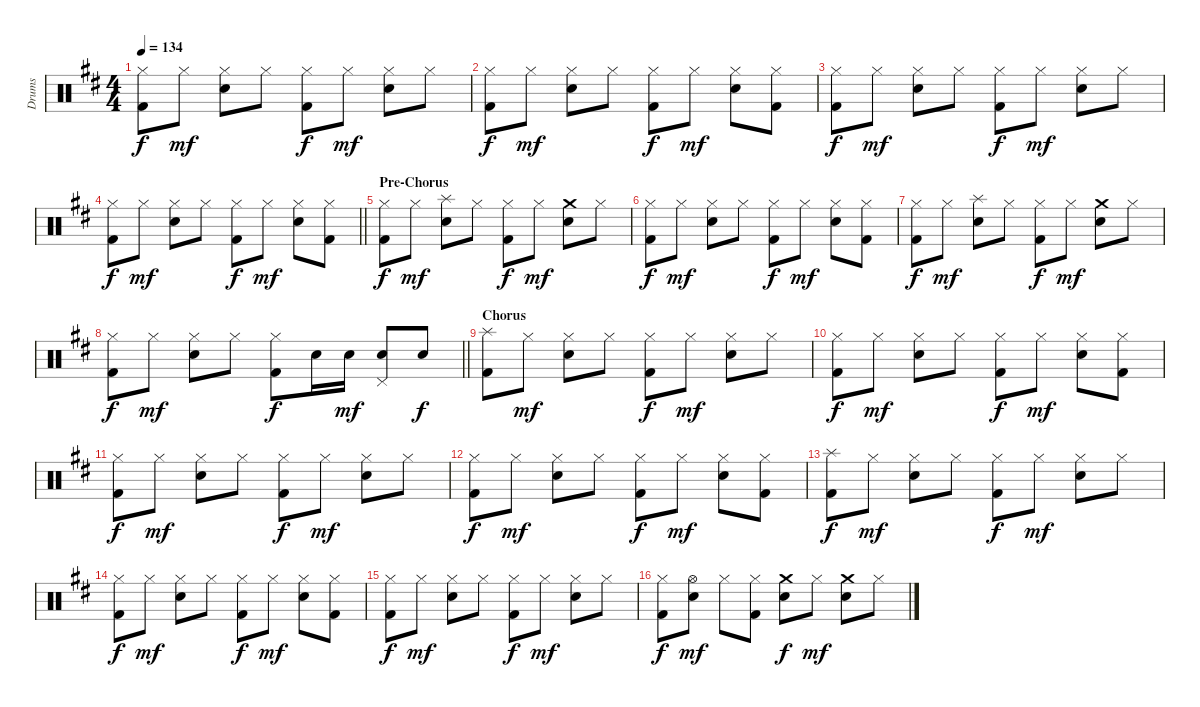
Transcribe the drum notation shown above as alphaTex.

\track ("Drums" "Drums") {instrument percussion}
\staff {score}
\articulation defaults
\ts (4 4)
\tempo 134
\clef neutral
\ks d
("Hi-Hat (closed)" "Kick (hit) 2").8{dy f} "Hi-Hat (closed)".8{dy mf} ("Hi-Hat (closed)" "Snare (hit) 2").8 "Hi-Hat (closed)".8 ("Hi-Hat (closed)" "Kick (hit) 2").8{dy f} "Hi-Hat (closed)".8{dy mf} ("Hi-Hat (closed)" "Snare (hit) 2").8 "Hi-Hat (closed)".8 |
("Hi-Hat (closed)" "Kick (hit) 2").8{dy f} "Hi-Hat (closed)".8{dy mf} ("Hi-Hat (closed)" "Snare (hit) 2").8 "Hi-Hat (closed)".8 ("Hi-Hat (closed)" "Kick (hit) 2").8{dy f} "Hi-Hat (closed)".8{dy mf} ("Hi-Hat (closed)" "Snare (hit) 2").8 ("Hi-Hat (closed)" "Kick (hit) 2").8 |
("Hi-Hat (closed)" "Kick (hit) 2").8{dy f} "Hi-Hat (closed)".8{dy mf} ("Hi-Hat (closed)" "Snare (hit) 2").8 "Hi-Hat (closed)".8 ("Hi-Hat (closed)" "Kick (hit) 2").8{dy f} "Hi-Hat (closed)".8{dy mf} ("Hi-Hat (closed)" "Snare (hit) 2").8 "Hi-Hat (closed)".8 |
\barLineRight lightlight
("Hi-Hat (closed)" "Kick (hit) 2").8{dy f} "Hi-Hat (closed)".8{dy mf} ("Hi-Hat (closed)" "Snare (hit) 2").8 "Hi-Hat (closed)".8 ("Hi-Hat (closed)" "Kick (hit) 2").8{dy f} "Hi-Hat (closed)".8{dy mf} ("Hi-Hat (closed)" "Snare (hit) 2").8 ("Hi-Hat (closed)" "Kick (hit) 2").8 |
\section ("" "Pre-Chorus")
("Hi-Hat (closed)" "Kick (hit) 2").8{dy f} "Hi-Hat (closed)".8{dy mf} ("Splash (hit)" "Snare (hit) 2").8 "Hi-Hat (closed)".8 ("Hi-Hat (closed)" "Kick (hit) 2").8{dy f} "Hi-Hat (closed)".8{dy mf} ("Crash medium (hit)" "Snare (hit) 2").8 "Hi-Hat (closed)".8 |
("Hi-Hat (closed)" "Kick (hit) 2").8{dy f} "Hi-Hat (closed)".8{dy mf} ("Hi-Hat (closed)" "Snare (hit) 2").8 "Hi-Hat (closed)".8 ("Hi-Hat (closed)" "Kick (hit) 2").8{dy f} "Hi-Hat (closed)".8{dy mf} ("Hi-Hat (closed)" "Snare (hit) 2").8 ("Hi-Hat (closed)" "Kick (hit) 2").8 |
("Hi-Hat (closed)" "Kick (hit) 2").8{dy f} "Hi-Hat (closed)".8{dy mf} ("Splash (hit)" "Snare (hit) 2").8 "Hi-Hat (closed)".8 ("Hi-Hat (closed)" "Kick (hit) 2").8{dy f} "Hi-Hat (closed)".8{dy mf} ("Crash medium (hit)" "Snare (hit) 2").8 "Hi-Hat (closed)".8 |
\barLineRight lightlight
("Hi-Hat (closed)" "Kick (hit) 2").8{dy f} "Hi-Hat (closed)".8{dy mf} ("Hi-Hat (closed)" "Snare (hit) 2").8 "Hi-Hat (closed)".8 ("Hi-Hat (closed)" "Kick (hit) 2").8{dy f} "Snare (hit) 2".16 "Snare (hit) 2".16{dy mf} ("Pedal Hi-Hat (hit)" "Snare (hit) 2").8 "Snare (hit) 2".8{dy f} |
\section ("" "Chorus")
("Splash (hit)" "Kick (hit) 2").8 "Hi-Hat (closed)".8{dy mf} ("Hi-Hat (closed)" "Snare (hit) 2").8 "Hi-Hat (closed)".8 ("Hi-Hat (closed)" "Kick (hit) 2").8{dy f} "Hi-Hat (closed)".8{dy mf} ("Hi-Hat (closed)" "Snare (hit) 2").8 "Hi-Hat (closed)".8 |
("Hi-Hat (closed)" "Kick (hit) 2").8{dy f} "Hi-Hat (closed)".8{dy mf} ("Hi-Hat (closed)" "Snare (hit) 2").8 "Hi-Hat (closed)".8 ("Hi-Hat (closed)" "Kick (hit) 2").8{dy f} "Hi-Hat (closed)".8{dy mf} ("Hi-Hat (closed)" "Snare (hit) 2").8 ("Hi-Hat (closed)" "Kick (hit) 2").8 |
("Hi-Hat (closed)" "Kick (hit) 2").8{dy f} "Hi-Hat (closed)".8{dy mf} ("Hi-Hat (closed)" "Snare (hit) 2").8 "Hi-Hat (closed)".8 ("Hi-Hat (closed)" "Kick (hit) 2").8{dy f} "Hi-Hat (closed)".8{dy mf} ("Hi-Hat (closed)" "Snare (hit) 2").8 "Hi-Hat (closed)".8 |
("Hi-Hat (closed)" "Kick (hit) 2").8{dy f} "Hi-Hat (closed)".8{dy mf} ("Hi-Hat (closed)" "Snare (hit) 2").8 "Hi-Hat (closed)".8 ("Hi-Hat (closed)" "Kick (hit) 2").8{dy f} "Hi-Hat (closed)".8{dy mf} ("Hi-Hat (closed)" "Snare (hit) 2").8 ("Hi-Hat (closed)" "Kick (hit) 2").8 |
("Splash (hit)" "Kick (hit) 2").8{dy f} "Hi-Hat (closed)".8{dy mf} ("Hi-Hat (closed)" "Snare (hit) 2").8 "Hi-Hat (closed)".8 ("Hi-Hat (closed)" "Kick (hit) 2").8{dy f} "Hi-Hat (closed)".8{dy mf} ("Hi-Hat (closed)" "Snare (hit) 2").8 "Hi-Hat (closed)".8 |
("Hi-Hat (closed)" "Kick (hit) 2").8{dy f} "Hi-Hat (closed)".8{dy mf} ("Hi-Hat (closed)" "Snare (hit) 2").8 "Hi-Hat (closed)".8 ("Hi-Hat (closed)" "Kick (hit) 2").8{dy f} "Hi-Hat (closed)".8{dy mf} ("Hi-Hat (closed)" "Snare (hit) 2").8 ("Hi-Hat (closed)" "Kick (hit) 2").8 |
("Hi-Hat (closed)" "Kick (hit) 2").8{dy f} "Hi-Hat (closed)".8{dy mf} ("Hi-Hat (closed)" "Snare (hit) 2").8 "Hi-Hat (closed)".8 ("Hi-Hat (closed)" "Kick (hit) 2").8{dy f} "Hi-Hat (closed)".8{dy mf} ("Hi-Hat (closed)" "Snare (hit) 2").8 "Hi-Hat (closed)".8 |
("Hi-Hat (closed)" "Kick (hit) 2").8{dy f} ("Hi-Hat (open)" "Snare (hit) 2").8{dy mf} "Hi-Hat (closed)".8 ("Hi-Hat (closed)" "Kick (hit) 2").8 ("Crash medium (hit)" "Snare (hit) 2").8{dy f} "Hi-Hat (closed)".8{dy mf} ("Crash medium (hit)" "Snare (hit) 2").8 "Hi-Hat (closed)".8
